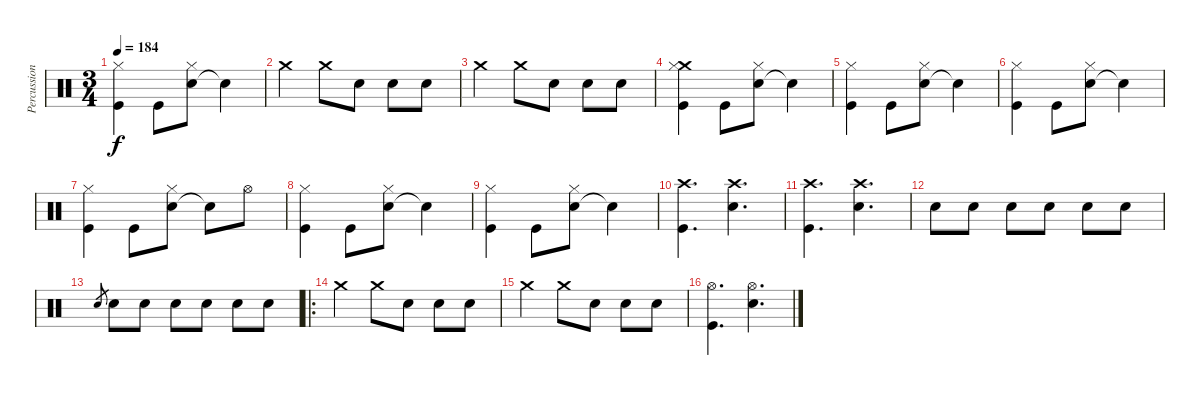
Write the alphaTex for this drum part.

\track ("Percussion" "Percussion") {instrument percussion}
\staff {score}
\articulation defaults
\ts (3 4)
\tempo 184
\clef neutral
\ks c
("Hi-Hat (closed)" "Kick (hit)").4{dy f} "Kick (hit)".8 ("Snare (hit) 2" "Hi-Hat (closed)").8 "Snare (hit)"{t}.4 |
"Crash medium (hit)".4 "Crash medium (hit)".8 "Snare (hit) 2".8 "Snare (hit) 2".8 "Snare (hit) 2".8 |
"Crash medium (hit)".4 "Crash medium (hit)".8 "Snare (hit) 2".8 "Snare (hit) 2".8 "Snare (hit) 2".8 |
("Crash medium (hit)" "Hi-Hat (closed)" "Kick (hit)").4 "Kick (hit)".8 ("Snare (hit) 2" "Hi-Hat (closed)").8 "Snare (hit)"{t}.4 |
("Hi-Hat (closed)" "Kick (hit)").4 "Kick (hit)".8 ("Snare (hit) 2" "Hi-Hat (closed)").8 "Snare (hit)"{t}.4 |
("Hi-Hat (closed)" "Kick (hit)").4 "Kick (hit)".8 ("Snare (hit) 2" "Hi-Hat (closed)").8 "Snare (hit)"{t}.4 |
("Hi-Hat (closed)" "Kick (hit)").4 "Kick (hit)".8 ("Snare (hit) 2" "Hi-Hat (closed)").8 "Snare (hit)"{t}.8 "Hi-Hat (open)".8 |
("Hi-Hat (closed)" "Kick (hit)").4 "Kick (hit)".8 ("Snare (hit) 2" "Hi-Hat (closed)").8 "Snare (hit)"{t}.4 |
("Hi-Hat (closed)" "Kick (hit)").4 "Kick (hit)".8 ("Snare (hit) 2" "Hi-Hat (closed)").8 "Snare (hit)"{t}.4 |
("Crash high (hit)" "Kick (hit)").4{d} ("Crash high (hit)" "Snare (hit) 2").4{d} |
("Crash high (hit)" "Kick (hit)").4{d} ("Crash high (hit)" "Snare (hit) 2").4{d} |
"Snare (hit) 2".8 "Snare (hit) 2".8 "Snare (hit) 2".8 "Snare (hit) 2".8 "Snare (hit) 2".8 "Snare (hit) 2".8 |
"Snare (hit) 2".8{gr} "Snare (hit) 2".8 "Snare (hit) 2".8 "Snare (hit) 2".8 "Snare (hit) 2".8 "Snare (hit) 2".8 "Snare (hit) 2".8 |
\ro "Crash medium (hit)".4 "Crash medium (hit)".8 "Snare (hit) 2".8 "Snare (hit) 2".8 "Snare (hit) 2".8
|
"Crash medium (hit)".4 "Crash medium (hit)".8 "Snare (hit) 2".8 "Snare (hit) 2".8 "Snare (hit) 2".8 |
("Hi-Hat (open)" "Kick (hit)").4{d} ("Hi-Hat (open)" "Snare (hit) 2").4{d}
